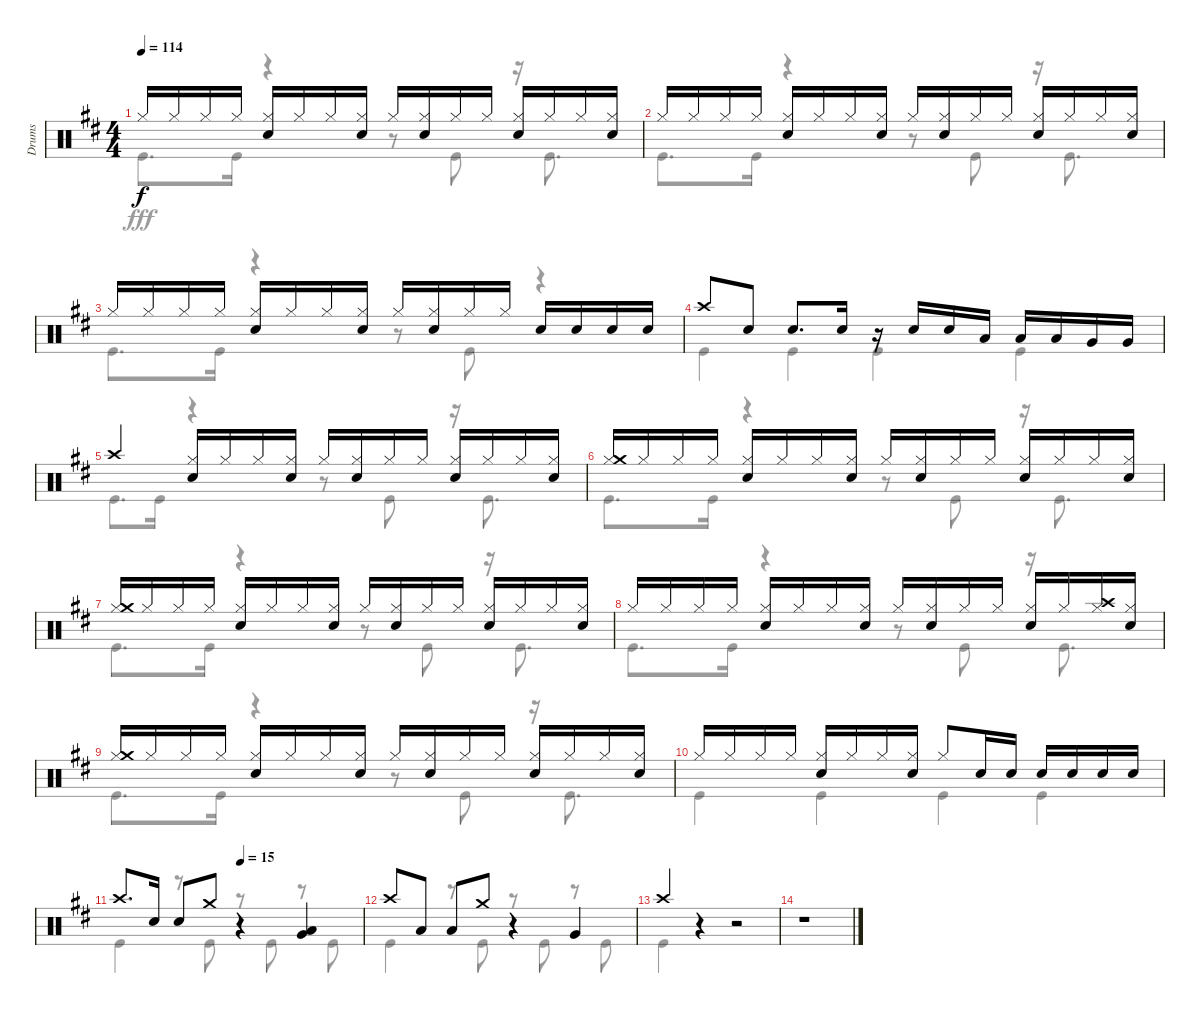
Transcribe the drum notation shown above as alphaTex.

\track ("Drums" "Drums") {instrument percussion}
\staff {score}
\articulation defaults
\voice
\ts (4 4)
\tempo 114
\clef neutral
\ks d "Hi-Hat (closed)".16{dy f} "Hi-Hat (closed)".16 "Hi-Hat (closed)".16 "Hi-Hat (closed)".16
("Hi-Hat (closed)" "Snare (hit) 2").16 "Hi-Hat (closed)".16 "Hi-Hat (closed)".16 ("Hi-Hat (closed)" "Snare (hit) 2").16 "Hi-Hat (closed)".16 ("Hi-Hat (closed)" "Snare (hit) 2").16 "Hi-Hat (closed)".16 "Hi-Hat (closed)".16 ("Hi-Hat (closed)" "Snare (hit) 2").16 "Hi-Hat (closed)".16 "Hi-Hat (closed)".16 ("Hi-Hat (closed)" "Snare (hit) 2").16 |
"Hi-Hat (closed)".16 "Hi-Hat (closed)".16 "Hi-Hat (closed)".16 "Hi-Hat (closed)".16 ("Hi-Hat (closed)" "Snare (hit) 2").16 "Hi-Hat (closed)".16 "Hi-Hat (closed)".16 ("Hi-Hat (closed)" "Snare (hit) 2").16 "Hi-Hat (closed)".16 ("Hi-Hat (closed)" "Snare (hit) 2").16 "Hi-Hat (closed)".16 "Hi-Hat (closed)".16 ("Hi-Hat (closed)" "Snare (hit) 2").16 "Hi-Hat (closed)".16 "Hi-Hat (closed)".16 ("Hi-Hat (closed)" "Snare (hit) 2").16 |
"Hi-Hat (closed)".16 "Hi-Hat (closed)".16 "Hi-Hat (closed)".16 "Hi-Hat (closed)".16 ("Hi-Hat (closed)" "Snare (hit) 2").16 "Hi-Hat (closed)".16 "Hi-Hat (closed)".16 ("Hi-Hat (closed)" "Snare (hit) 2").16 "Hi-Hat (closed)".16 ("Hi-Hat (closed)" "Snare (hit) 2").16 "Hi-Hat (closed)".16 "Hi-Hat (closed)".16 "Snare (hit) 2".16 "Snare (hit) 2".16 "Snare (hit) 2".16 "Snare (hit) 2".16 |
"Crash high (hit)".8 "Snare (hit) 2".8 "Snare (hit) 2".8{d} "Snare (hit) 2".16 r.16 "Snare (hit) 2".16 "Snare (hit) 2".16 "Low Tom (hit)".16 "Low Tom (hit)".16 "Low Tom (hit)".16 "Very Low Tom (hit)".16 "Very Low Tom (hit)".16 |
"Crash high (hit)".4 ("Hi-Hat (closed)" "Snare (hit) 2").16 "Hi-Hat (closed)".16 "Hi-Hat (closed)".16 ("Hi-Hat (closed)" "Snare (hit) 2").16 "Hi-Hat (closed)".16 ("Hi-Hat (closed)" "Snare (hit) 2").16 "Hi-Hat (closed)".16 "Hi-Hat (closed)".16 ("Hi-Hat (closed)" "Snare (hit) 2").16 "Hi-Hat (closed)".16 "Hi-Hat (closed)".16 ("Hi-Hat (closed)" "Snare (hit) 2").16 |
("Hi-Hat (closed)" "Crash medium (hit)").16 "Hi-Hat (closed)".16 "Hi-Hat (closed)".16 "Hi-Hat (closed)".16 ("Hi-Hat (closed)" "Snare (hit) 2").16 "Hi-Hat (closed)".16 "Hi-Hat (closed)".16 ("Hi-Hat (closed)" "Snare (hit) 2").16 "Hi-Hat (closed)".16 ("Hi-Hat (closed)" "Snare (hit) 2").16 "Hi-Hat (closed)".16 "Hi-Hat (closed)".16 ("Hi-Hat (closed)" "Snare (hit) 2").16 "Hi-Hat (closed)".16 "Hi-Hat (closed)".16 ("Hi-Hat (closed)" "Snare (hit) 2").16 |
("Hi-Hat (closed)" "Crash medium (hit)").16 "Hi-Hat (closed)".16 "Hi-Hat (closed)".16 "Hi-Hat (closed)".16 ("Hi-Hat (closed)" "Snare (hit) 2").16 "Hi-Hat (closed)".16 "Hi-Hat (closed)".16 ("Hi-Hat (closed)" "Snare (hit) 2").16 "Hi-Hat (closed)".16 ("Hi-Hat (closed)" "Snare (hit) 2").16 "Hi-Hat (closed)".16 "Hi-Hat (closed)".16 ("Hi-Hat (closed)" "Snare (hit) 2").16 "Hi-Hat (closed)".16 "Hi-Hat (closed)".16 ("Hi-Hat (closed)" "Snare (hit) 2").16 |
"Hi-Hat (closed)".16 "Hi-Hat (closed)".16 "Hi-Hat (closed)".16 "Hi-Hat (closed)".16 ("Hi-Hat (closed)" "Snare (hit) 2").16 "Hi-Hat (closed)".16 "Hi-Hat (closed)".16 ("Hi-Hat (closed)" "Snare (hit) 2").16 "Hi-Hat (closed)".16 ("Hi-Hat (closed)" "Snare (hit) 2").16 "Hi-Hat (closed)".16 "Hi-Hat (closed)".16 ("Hi-Hat (closed)" "Snare (hit) 2").16 "Hi-Hat (closed)".16 ("Hi-Hat (closed)" "Crash high (hit)").16 ("Hi-Hat (closed)" "Snare (hit) 2").16 |
("Hi-Hat (closed)" "Crash medium (hit)").16 "Hi-Hat (closed)".16 "Hi-Hat (closed)".16 "Hi-Hat (closed)".16 ("Hi-Hat (closed)" "Snare (hit) 2").16 "Hi-Hat (closed)".16 "Hi-Hat (closed)".16 ("Hi-Hat (closed)" "Snare (hit) 2").16 "Hi-Hat (closed)".16 ("Hi-Hat (closed)" "Snare (hit) 2").16 "Hi-Hat (closed)".16 "Hi-Hat (closed)".16 ("Hi-Hat (closed)" "Snare (hit) 2").16 "Hi-Hat (closed)".16 "Hi-Hat (closed)".16 ("Hi-Hat (closed)" "Snare (hit) 2").16 |
"Hi-Hat (closed)".16 "Hi-Hat (closed)".16 "Hi-Hat (closed)".16 "Hi-Hat (closed)".16 ("Hi-Hat (closed)" "Snare (hit) 2").16 "Hi-Hat (closed)".16 "Hi-Hat (closed)".16 ("Hi-Hat (closed)" "Snare (hit) 2").16 "Hi-Hat (closed)".8 "Snare (hit) 2".16 "Snare (hit) 2".16 "Snare (hit) 2".16 "Snare (hit) 2".16 "Snare (hit) 2".16 "Snare (hit) 2".16 |
\tempo (15 0.5)
"Crash high (hit)".8{d} "Snare (hit) 2".16 "Snare (hit) 2".8 "Crash medium (hit)".8 r.4 ("Low Tom (hit)" "Very Low Tom (hit)").4 |
"Crash high (hit)".8 "Low Tom (hit)".8 "Low Tom (hit)".8 "Crash medium (hit)".8 r.4 "Very Low Tom (hit)".4 |
"Crash high (hit)".4 r.4 r.2 |
r.1
\voice
\clef neutral
\ottava regular
\simile none
\ks d "Kick (hit)".8{d dy fff} "Kick (hit)".16
r.4 r.8 "Kick (hit)".8 r.16 "Kick (hit)".8{d} |
"Kick (hit)".8{d} "Kick (hit)".16 r.4 r.8 "Kick (hit)".8 r.16 "Kick (hit)".8{d} |
"Kick (hit)".8{d} "Kick (hit)".16 r.4 r.8 "Kick (hit)".8 r.4 |
"Kick (hit)".4 "Kick (hit)".4 "Kick (hit)".4 "Kick (hit)".4 |
"Kick (hit)".8{d} "Kick (hit)".16 r.4 r.8 "Kick (hit)".8 r.16 "Kick (hit)".8{d} |
"Kick (hit)".8{d} "Kick (hit)".16 r.4 r.8 "Kick (hit)".8 r.16 "Kick (hit)".8{d} |
"Kick (hit)".8{d} "Kick (hit)".16 r.4 r.8 "Kick (hit)".8 r.16 "Kick (hit)".8{d} |
"Kick (hit)".8{d} "Kick (hit)".16 r.4 r.8 "Kick (hit)".8 r.16 "Kick (hit)".8{d} |
"Kick (hit)".8{d} "Kick (hit)".16 r.4 r.8 "Kick (hit)".8 r.16 "Kick (hit)".8{d} |
"Kick (hit)".4 "Kick (hit)".4 "Kick (hit)".4 "Kick (hit)".4 |
"Kick (hit)".4 r.8 "Kick (hit)".8 r.8 "Kick (hit)".8 r.8 "Kick (hit)".8 |
"Kick (hit)".4 r.8 "Kick (hit)".8 r.8 "Kick (hit)".8 r.8 "Kick (hit)".8 |
"Kick (hit)".4 r.4 r.2 |
r.1
